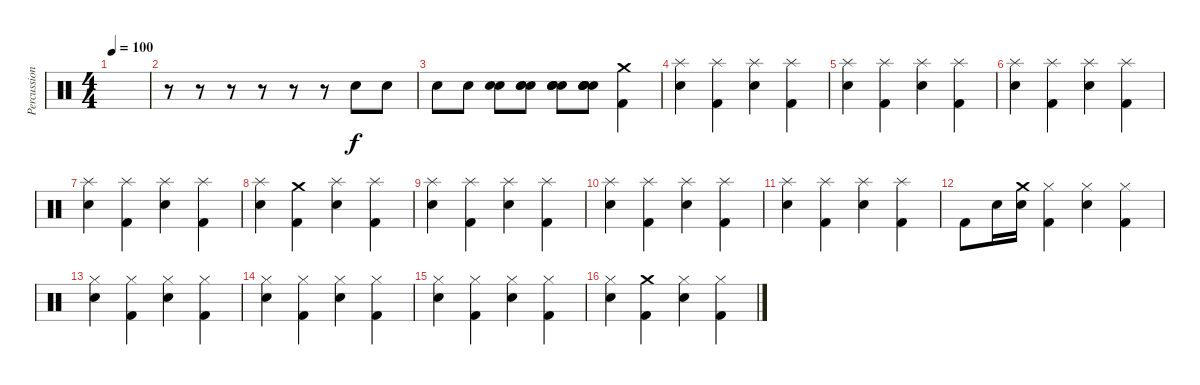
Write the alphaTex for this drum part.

\track ("Percussion" "Percussion") {instrument percussion}
\staff {score}
\articulation defaults
\ts (4 4)
\tempo 100
\clef neutral
\ks c
|
r.8 r.8 r.8 r.8 r.8 r.8 "Electric Snare (hit)".8 "Electric Snare (hit)".8 |
"Electric Snare (hit)".8 "Electric Snare (hit)".8 ("Electric Snare (hit)" "Electric Snare (hit)").8 ("Electric Snare (hit)" "Electric Snare (hit)" "Electric Snare (hit)").8 ("Electric Snare (hit)" "Electric Snare (hit)" "Electric Snare (hit)" "Electric Snare (hit)").8 ("Electric Snare (hit)" "Electric Snare (hit)" "Electric Snare (hit)" "Electric Snare (hit)" "Electric Snare (hit)").8 ("Crash medium (hit)" "Kick (hit) 2").4 |
("Splash (hit)" "Electric Snare (hit)").4 ("Splash (hit)" "Kick (hit) 2").4 ("Splash (hit)" "Electric Snare (hit)").4 ("Splash (hit)" "Kick (hit) 2").4 |
("Splash (hit)" "Electric Snare (hit)").4 ("Splash (hit)" "Kick (hit) 2").4 ("Splash (hit)" "Electric Snare (hit)").4 ("Splash (hit)" "Kick (hit) 2").4 |
("Splash (hit)" "Electric Snare (hit)").4 ("Splash (hit)" "Kick (hit) 2").4 ("Splash (hit)" "Electric Snare (hit)").4 ("Splash (hit)" "Kick (hit) 2").4 |
("Splash (hit)" "Electric Snare (hit)").4 ("Splash (hit)" "Kick (hit) 2").4 ("Splash (hit)" "Electric Snare (hit)").4 ("Splash (hit)" "Kick (hit) 2").4 |
("Splash (hit)" "Electric Snare (hit)").4 ("Crash medium (hit)" "Kick (hit) 2").4 ("Splash (hit)" "Electric Snare (hit)").4 ("Splash (hit)" "Kick (hit) 2").4 |
("Splash (hit)" "Electric Snare (hit)").4 ("Splash (hit)" "Kick (hit) 2").4 ("Splash (hit)" "Electric Snare (hit)").4 ("Splash (hit)" "Kick (hit) 2").4 |
("Splash (hit)" "Electric Snare (hit)").4 ("Splash (hit)" "Kick (hit) 2").4 ("Splash (hit)" "Electric Snare (hit)").4 ("Splash (hit)" "Kick (hit) 2").4 |
("Splash (hit)" "Electric Snare (hit)").4 ("Splash (hit)" "Kick (hit) 2").4 ("Splash (hit)" "Electric Snare (hit)").4 ("Splash (hit)" "Kick (hit) 2").4 |
"Kick (hit) 2".8 "Snare (hit) 2".16 ("Crash medium (hit)" "Electric Snare (hit)").16 ("Hi-Hat (closed)" "Kick (hit) 2").4 ("Hi-Hat (closed)" "Electric Snare (hit)").4 ("Hi-Hat (closed)" "Kick (hit) 2").4 |
("Hi-Hat (closed)" "Electric Snare (hit)").4 ("Hi-Hat (closed)" "Kick (hit) 2").4 ("Hi-Hat (closed)" "Electric Snare (hit)").4 ("Hi-Hat (closed)" "Kick (hit) 2").4 |
("Hi-Hat (closed)" "Electric Snare (hit)").4 ("Hi-Hat (closed)" "Kick (hit) 2").4 ("Hi-Hat (closed)" "Electric Snare (hit)").4 ("Hi-Hat (closed)" "Kick (hit) 2").4 |
("Hi-Hat (closed)" "Electric Snare (hit)").4 ("Hi-Hat (closed)" "Kick (hit) 2").4 ("Hi-Hat (closed)" "Electric Snare (hit)").4 ("Hi-Hat (closed)" "Kick (hit) 2").4 |
("Hi-Hat (closed)" "Electric Snare (hit)").4 ("Crash medium (hit)" "Kick (hit) 2").4 ("Hi-Hat (closed)" "Electric Snare (hit)").4 ("Hi-Hat (closed)" "Kick (hit) 2").4
